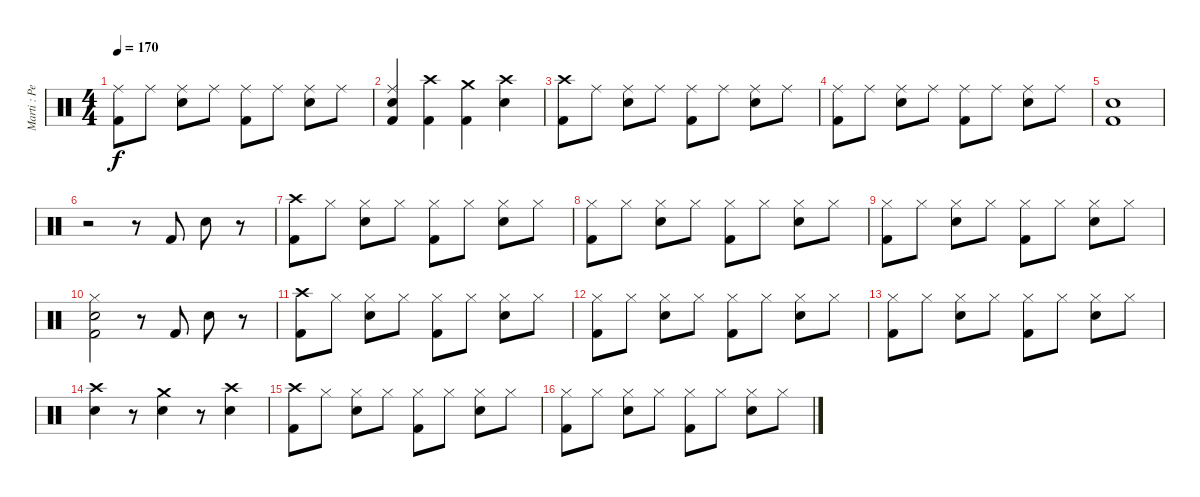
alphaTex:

\track ("Marti : Percussion" "Marti : Pe") {instrument percussion}
\staff {score}
\articulation defaults
\ts (4 4)
\tempo 170
\clef neutral
\ks c
("Kick (hit) 2" "Ride (middle)").8{dy f} "Ride (middle)".8 ("Electric Snare (hit)" "Ride (middle)").8 "Ride (middle)".8 ("Kick (hit) 2" "Ride (middle)").8 "Ride (middle)".8 ("Electric Snare (hit)" "Ride (middle)").8 "Ride (middle)".8 |
("Kick (hit) 2" "Electric Snare (hit)" "Ride (middle)").4 ("Kick (hit) 2" "Crash high (hit)").4 ("Kick (hit) 2" "Crash medium (hit)").4 ("Electric Snare (hit)" "Crash high (hit)").4 |
("Kick (hit) 2" "Crash high (hit)").8 "Ride (middle)".8 ("Electric Snare (hit)" "Ride (middle)").8 "Ride (middle)".8 ("Kick (hit) 2" "Ride (middle)").8 "Ride (middle)".8 ("Electric Snare (hit)" "Ride (middle)").8 "Ride (middle)".8 |
("Kick (hit) 2" "Ride (middle)").8 "Ride (middle)".8 ("Electric Snare (hit)" "Ride (middle)").8 "Ride (middle)".8 ("Kick (hit) 2" "Ride (middle)").8 "Ride (middle)".8 ("Electric Snare (hit)" "Ride (middle)").8 "Ride (middle)".8 |
("Electric Snare (hit)" "Kick (hit) 2").1 |
r.2 r.8 "Kick (hit) 2".8 "Electric Snare (hit)".8 r.8 |
("Kick (hit) 2" "Crash high (hit)").8 "Hi-Hat (closed)".8 ("Electric Snare (hit)" "Hi-Hat (closed)").8 "Hi-Hat (closed)".8 ("Kick (hit) 2" "Hi-Hat (closed)").8 "Hi-Hat (closed)".8 ("Electric Snare (hit)" "Hi-Hat (closed)").8 "Hi-Hat (closed)".8 |
("Kick (hit) 2" "Hi-Hat (closed)").8 "Hi-Hat (closed)".8 ("Electric Snare (hit)" "Hi-Hat (closed)").8 "Hi-Hat (closed)".8 ("Kick (hit) 2" "Hi-Hat (closed)").8 "Hi-Hat (closed)".8 ("Electric Snare (hit)" "Hi-Hat (closed)").8 "Hi-Hat (closed)".8 |
("Kick (hit) 2" "Hi-Hat (closed)").8 "Hi-Hat (closed)".8 ("Electric Snare (hit)" "Hi-Hat (closed)").8 "Hi-Hat (closed)".8 ("Kick (hit) 2" "Hi-Hat (closed)").8 "Hi-Hat (closed)".8 ("Electric Snare (hit)" "Hi-Hat (closed)").8 "Hi-Hat (closed)".8 |
("Electric Snare (hit)" "Kick (hit) 2" "Hi-Hat (closed)").2 r.8 "Kick (hit) 2".8 "Electric Snare (hit)".8 r.8 |
("Kick (hit) 2" "Crash high (hit)").8 "Hi-Hat (closed)".8 ("Electric Snare (hit)" "Hi-Hat (closed)").8 "Hi-Hat (closed)".8 ("Kick (hit) 2" "Hi-Hat (closed)").8 "Hi-Hat (closed)".8 ("Electric Snare (hit)" "Hi-Hat (closed)").8 "Hi-Hat (closed)".8 |
("Kick (hit) 2" "Hi-Hat (closed)").8 "Hi-Hat (closed)".8 ("Electric Snare (hit)" "Hi-Hat (closed)").8 "Hi-Hat (closed)".8 ("Kick (hit) 2" "Hi-Hat (closed)").8 "Hi-Hat (closed)".8 ("Electric Snare (hit)" "Hi-Hat (closed)").8 "Hi-Hat (closed)".8 |
("Kick (hit) 2" "Hi-Hat (closed)").8 "Hi-Hat (closed)".8 ("Electric Snare (hit)" "Hi-Hat (closed)").8 "Hi-Hat (closed)".8 ("Kick (hit) 2" "Hi-Hat (closed)").8 "Hi-Hat (closed)".8 ("Electric Snare (hit)" "Hi-Hat (closed)").8 "Hi-Hat (closed)".8 |
("Electric Snare (hit)" "Crash high (hit)").4 r.8 ("Electric Snare (hit)" "Crash medium (hit)").4 r.8 ("Electric Snare (hit)" "Crash high (hit)").4 |
("Kick (hit) 2" "Crash high (hit)").8 "Hi-Hat (closed)".8 ("Electric Snare (hit)" "Hi-Hat (closed)").8 "Hi-Hat (closed)".8 ("Kick (hit) 2" "Hi-Hat (closed)").8 "Hi-Hat (closed)".8 ("Electric Snare (hit)" "Hi-Hat (closed)").8 "Hi-Hat (closed)".8 |
("Kick (hit) 2" "Hi-Hat (closed)").8 "Hi-Hat (closed)".8 ("Electric Snare (hit)" "Hi-Hat (closed)").8 "Hi-Hat (closed)".8 ("Kick (hit) 2" "Hi-Hat (closed)").8 "Hi-Hat (closed)".8 ("Electric Snare (hit)" "Hi-Hat (closed)").8 "Hi-Hat (closed)".8
